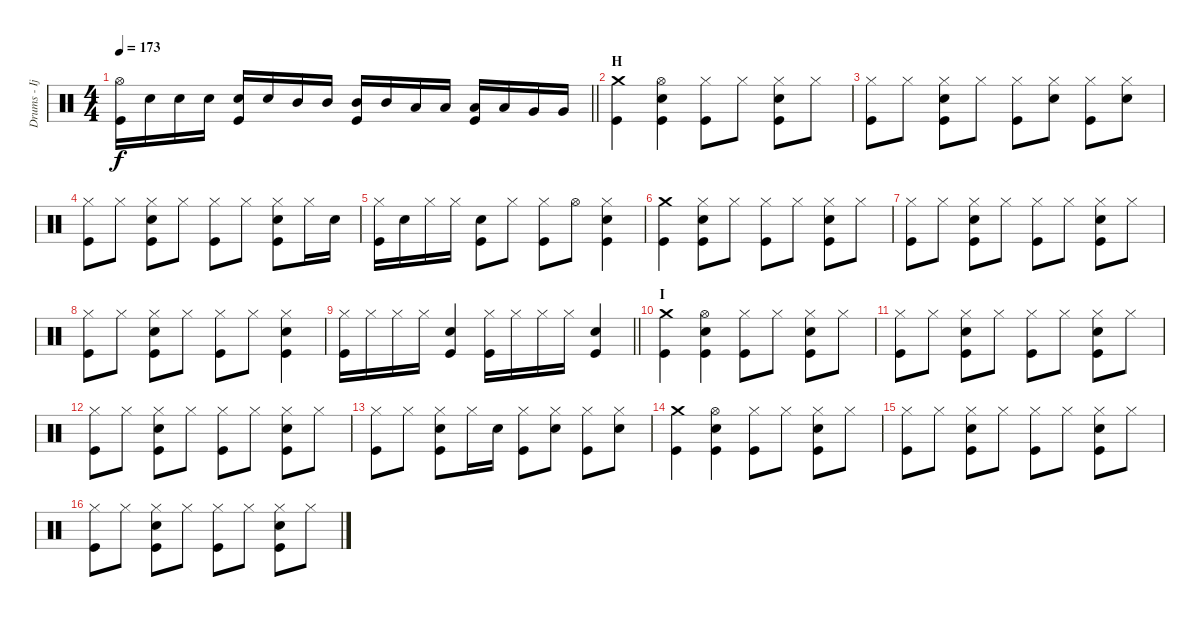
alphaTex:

\track ("Drums - Ijichi" "Drums - Ij") {instrument percussion}
\staff {score}
\articulation defaults
\ts (4 4)
\tempo 173
\clef neutral
\barLineRight lightlight
\ks c
("Hi-Hat (open)" "Kick (hit)").16{dy f} "Electric Snare (hit)".16 "Electric Snare (hit)".16 "Electric Snare (hit)".16 ("Electric Snare (hit)" "Kick (hit)").16 "Electric Snare (hit)".16 "Mid Tom (hit)".16 "Mid Tom (hit)".16 ("Mid Tom (hit)" "Kick (hit)").16 "Mid Tom (hit)".16 "Low Tom (hit)".16 "Low Tom (hit)".16 ("Low Tom (hit)" "Kick (hit)").16 "Low Tom (hit)".16 "Very Low Tom (hit)".16 "Very Low Tom (hit)".16 |
\section ("" "H")
("Crash medium (hit)" "Kick (hit)").4 ("Hi-Hat (open)" "Electric Snare (hit)" "Kick (hit)").4 ("Hi-Hat (closed)" "Kick (hit)").8 "Hi-Hat (closed)".8 ("Hi-Hat (closed)" "Electric Snare (hit)" "Kick (hit)").8 "Hi-Hat (closed)".8 |
("Hi-Hat (closed)" "Kick (hit)").8 "Hi-Hat (closed)".8 ("Hi-Hat (closed)" "Electric Snare (hit)" "Kick (hit)").8 "Hi-Hat (closed)".8 ("Hi-Hat (closed)" "Kick (hit)").8 ("Hi-Hat (closed)" "Electric Snare (hit)").8 ("Hi-Hat (closed)" "Kick (hit)").8 ("Hi-Hat (closed)" "Electric Snare (hit)").8 |
("Hi-Hat (closed)" "Kick (hit)").8 "Hi-Hat (closed)".8 ("Hi-Hat (closed)" "Electric Snare (hit)" "Kick (hit)").8 "Hi-Hat (closed)".8 ("Hi-Hat (closed)" "Kick (hit)").8 "Hi-Hat (closed)".8 ("Hi-Hat (closed)" "Electric Snare (hit)" "Kick (hit)").8 "Hi-Hat (closed)".16 "Electric Snare (hit)".16 |
("Hi-Hat (closed)" "Kick (hit)").16 "Electric Snare (hit)".16 "Hi-Hat (closed)".16 "Hi-Hat (closed)".16 ("Electric Snare (hit)" "Kick (hit)").8 "Hi-Hat (closed)".8 ("Hi-Hat (closed)" "Kick (hit)").8 "Hi-Hat (open)".8 ("Hi-Hat (closed)" "Electric Snare (hit)" "Kick (hit)").4 |
("Crash medium (hit)" "Kick (hit)").4 ("Hi-Hat (closed)" "Electric Snare (hit)" "Kick (hit)").8 "Hi-Hat (closed)".8 ("Hi-Hat (closed)" "Kick (hit)").8 "Hi-Hat (closed)".8 ("Hi-Hat (closed)" "Electric Snare (hit)" "Kick (hit)").8 "Hi-Hat (closed)".8 |
("Hi-Hat (closed)" "Kick (hit)").8 "Hi-Hat (closed)".8 ("Hi-Hat (closed)" "Electric Snare (hit)" "Kick (hit)").8 "Hi-Hat (closed)".8 ("Hi-Hat (closed)" "Kick (hit)").8 "Hi-Hat (closed)".8 ("Hi-Hat (closed)" "Electric Snare (hit)" "Kick (hit)").8 "Hi-Hat (closed)".8 |
("Hi-Hat (closed)" "Kick (hit)").8 "Hi-Hat (closed)".8 ("Hi-Hat (closed)" "Electric Snare (hit)" "Kick (hit)").8 "Hi-Hat (closed)".8 ("Hi-Hat (closed)" "Kick (hit)").8 "Hi-Hat (closed)".8 ("Hi-Hat (closed)" "Electric Snare (hit)" "Kick (hit)").4 |
\barLineRight lightlight
("Hi-Hat (closed)" "Kick (hit)").16 "Hi-Hat (closed)".16 "Hi-Hat (closed)".16 "Hi-Hat (closed)".16 ("Electric Snare (hit)" "Kick (hit)").4 ("Hi-Hat (closed)" "Kick (hit)").16 "Hi-Hat (closed)".16 "Hi-Hat (closed)".16 "Hi-Hat (closed)".16 ("Electric Snare (hit)" "Kick (hit)").4 |
\section ("" "I")
("Crash medium (hit)" "Kick (hit)").4 ("Hi-Hat (open)" "Electric Snare (hit)" "Kick (hit)").4 ("Hi-Hat (closed)" "Kick (hit)").8 "Hi-Hat (closed)".8 ("Hi-Hat (closed)" "Electric Snare (hit)" "Kick (hit)").8 "Hi-Hat (closed)".8 |
("Hi-Hat (closed)" "Kick (hit)").8 "Hi-Hat (closed)".8 ("Hi-Hat (closed)" "Electric Snare (hit)" "Kick (hit)").8 "Hi-Hat (closed)".8 ("Hi-Hat (closed)" "Kick (hit)").8 "Hi-Hat (closed)".8 ("Hi-Hat (closed)" "Electric Snare (hit)" "Kick (hit)").8 "Hi-Hat (closed)".8 |
("Hi-Hat (closed)" "Kick (hit)").8 "Hi-Hat (closed)".8 ("Hi-Hat (closed)" "Electric Snare (hit)" "Kick (hit)").8 "Hi-Hat (closed)".8 ("Hi-Hat (closed)" "Kick (hit)").8 "Hi-Hat (closed)".8 ("Hi-Hat (closed)" "Electric Snare (hit)" "Kick (hit)").8 "Hi-Hat (closed)".8 |
("Hi-Hat (closed)" "Kick (hit)").8 "Hi-Hat (closed)".8 ("Hi-Hat (closed)" "Electric Snare (hit)" "Kick (hit)").8 "Hi-Hat (closed)".16 "Electric Snare (hit)".16 ("Hi-Hat (closed)" "Kick (hit)").8 ("Hi-Hat (closed)" "Electric Snare (hit)").8 ("Hi-Hat (closed)" "Kick (hit)").8 ("Hi-Hat (closed)" "Electric Snare (hit)").8 |
("Crash medium (hit)" "Kick (hit)").4 ("Hi-Hat (open)" "Electric Snare (hit)" "Kick (hit)").4 ("Hi-Hat (closed)" "Kick (hit)").8 "Hi-Hat (closed)".8 ("Hi-Hat (closed)" "Electric Snare (hit)" "Kick (hit)").8 "Hi-Hat (closed)".8 |
("Hi-Hat (closed)" "Kick (hit)").8 "Hi-Hat (closed)".8 ("Hi-Hat (closed)" "Electric Snare (hit)" "Kick (hit)").8 "Hi-Hat (closed)".8 ("Hi-Hat (closed)" "Kick (hit)").8 "Hi-Hat (closed)".8 ("Hi-Hat (closed)" "Electric Snare (hit)" "Kick (hit)").8 "Hi-Hat (closed)".8 |
("Hi-Hat (closed)" "Kick (hit)").8 "Hi-Hat (closed)".8 ("Hi-Hat (closed)" "Electric Snare (hit)" "Kick (hit)").8 "Hi-Hat (closed)".8 ("Hi-Hat (closed)" "Kick (hit)").8 "Hi-Hat (closed)".8 ("Hi-Hat (closed)" "Electric Snare (hit)" "Kick (hit)").8 "Hi-Hat (closed)".8
